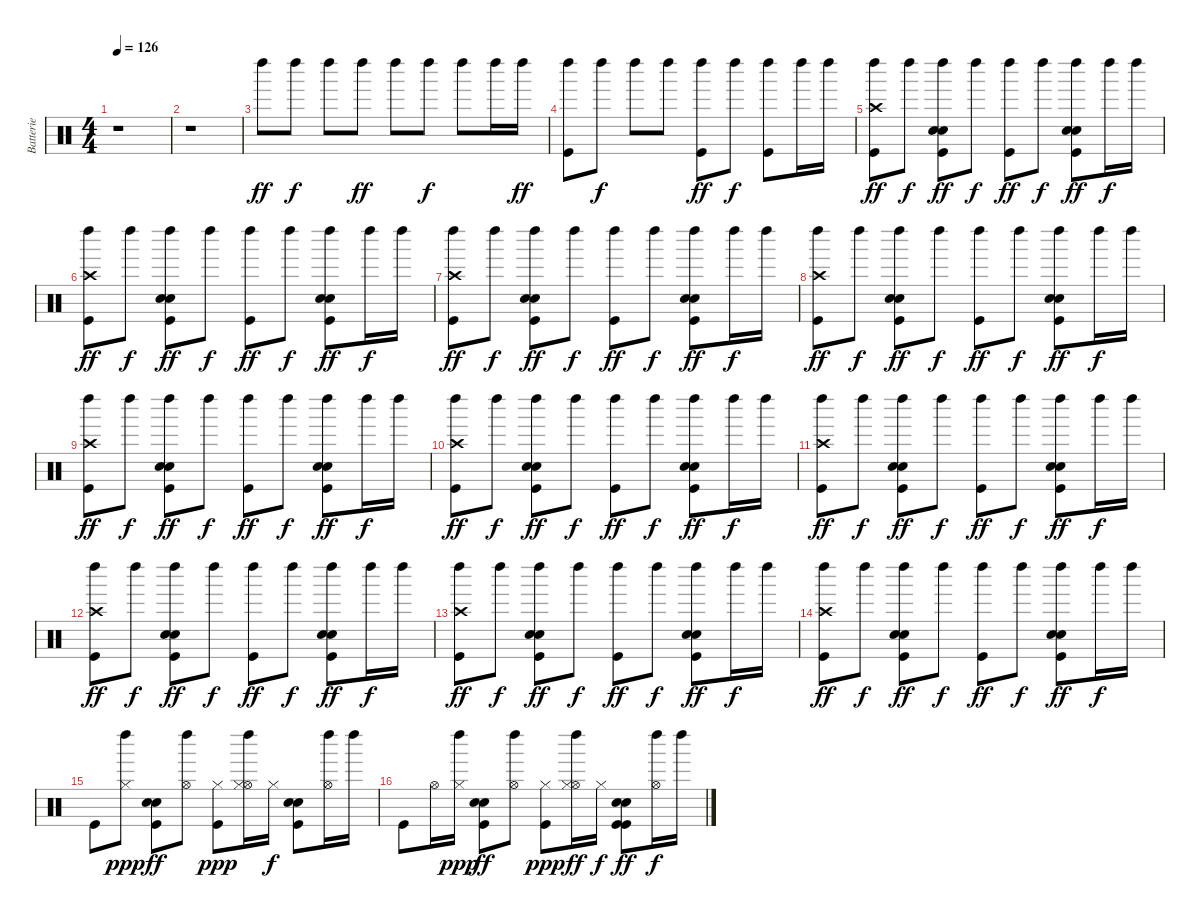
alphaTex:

\track ("Batterie" "Batterie") {instrument percussion}
\staff {score}
\articulation defaults
\ts (4 4)
\tempo 126
\clef neutral
\ks c
r.1{dy f} |
r.1 |
"Left Maraca (hit)".8{dy ff} "Left Maraca (hit)".8{dy f} "Left Maraca (hit)".8 "Left Maraca (hit)".8{dy ff} "Left Maraca (hit)".8 "Left Maraca (hit)".8{dy f} "Left Maraca (hit)".8 "Left Maraca (hit)".16 "Left Maraca (hit)".16{dy ff} |
("Left Maraca (hit)" "Kick (hit)").8 "Left Maraca (hit)".8{dy f} "Left Maraca (hit)".8 "Left Maraca (hit)".8 ("Left Maraca (hit)" "Kick (hit)").8{dy ff} "Left Maraca (hit)".8{dy f} ("Left Maraca (hit)" "Kick (hit)").8 "Left Maraca (hit)".16 "Left Maraca (hit)".16 |
("Left Maraca (hit)" "Crash high (hit)" "Kick (hit)").8{dy ff} "Left Maraca (hit)".8{dy f} ("Left Maraca (hit)" "Hand Clap (hit)" "Electric Snare (hit)" "Kick (hit)").8{dy ff} "Left Maraca (hit)".8{dy f} ("Left Maraca (hit)" "Kick (hit)").8{dy ff} "Left Maraca (hit)".8{dy f} ("Left Maraca (hit)" "Hand Clap (hit)" "Electric Snare (hit)" "Kick (hit)").8{dy ff} "Left Maraca (hit)".16{dy f} "Left Maraca (hit)".16 |
("Left Maraca (hit)" "Crash high (hit)" "Kick (hit)").8{dy ff} "Left Maraca (hit)".8{dy f} ("Left Maraca (hit)" "Hand Clap (hit)" "Electric Snare (hit)" "Kick (hit)").8{dy ff} "Left Maraca (hit)".8{dy f} ("Left Maraca (hit)" "Kick (hit)").8{dy ff} "Left Maraca (hit)".8{dy f} ("Left Maraca (hit)" "Hand Clap (hit)" "Electric Snare (hit)" "Kick (hit)").8{dy ff} "Left Maraca (hit)".16{dy f} "Left Maraca (hit)".16 |
("Left Maraca (hit)" "Crash high (hit)" "Kick (hit)").8{dy ff} "Left Maraca (hit)".8{dy f} ("Left Maraca (hit)" "Hand Clap (hit)" "Electric Snare (hit)" "Kick (hit)").8{dy ff} "Left Maraca (hit)".8{dy f} ("Left Maraca (hit)" "Kick (hit)").8{dy ff} "Left Maraca (hit)".8{dy f} ("Left Maraca (hit)" "Hand Clap (hit)" "Electric Snare (hit)" "Kick (hit)").8{dy ff} "Left Maraca (hit)".16{dy f} "Left Maraca (hit)".16 |
("Left Maraca (hit)" "Crash high (hit)" "Kick (hit)").8{dy ff} "Left Maraca (hit)".8{dy f} ("Left Maraca (hit)" "Hand Clap (hit)" "Electric Snare (hit)" "Kick (hit)").8{dy ff} "Left Maraca (hit)".8{dy f} ("Left Maraca (hit)" "Kick (hit)").8{dy ff} "Left Maraca (hit)".8{dy f} ("Left Maraca (hit)" "Hand Clap (hit)" "Electric Snare (hit)" "Kick (hit)").8{dy ff} "Left Maraca (hit)".16{dy f} "Left Maraca (hit)".16 |
("Left Maraca (hit)" "Crash high (hit)" "Kick (hit)").8{dy ff} "Left Maraca (hit)".8{dy f} ("Left Maraca (hit)" "Hand Clap (hit)" "Electric Snare (hit)" "Kick (hit)").8{dy ff} "Left Maraca (hit)".8{dy f} ("Left Maraca (hit)" "Kick (hit)").8{dy ff} "Left Maraca (hit)".8{dy f} ("Left Maraca (hit)" "Hand Clap (hit)" "Electric Snare (hit)" "Kick (hit)").8{dy ff} "Left Maraca (hit)".16{dy f} "Left Maraca (hit)".16 |
("Left Maraca (hit)" "Crash high (hit)" "Kick (hit)").8{dy ff} "Left Maraca (hit)".8{dy f} ("Left Maraca (hit)" "Hand Clap (hit)" "Electric Snare (hit)" "Kick (hit)").8{dy ff} "Left Maraca (hit)".8{dy f} ("Left Maraca (hit)" "Kick (hit)").8{dy ff} "Left Maraca (hit)".8{dy f} ("Left Maraca (hit)" "Hand Clap (hit)" "Electric Snare (hit)" "Kick (hit)").8{dy ff} "Left Maraca (hit)".16{dy f} "Left Maraca (hit)".16 |
("Left Maraca (hit)" "Crash high (hit)" "Kick (hit)").8{dy ff} "Left Maraca (hit)".8{dy f} ("Left Maraca (hit)" "Hand Clap (hit)" "Electric Snare (hit)" "Kick (hit)").8{dy ff} "Left Maraca (hit)".8{dy f} ("Left Maraca (hit)" "Kick (hit)").8{dy ff} "Left Maraca (hit)".8{dy f} ("Left Maraca (hit)" "Hand Clap (hit)" "Electric Snare (hit)" "Kick (hit)").8{dy ff} "Left Maraca (hit)".16{dy f} "Left Maraca (hit)".16 |
("Left Maraca (hit)" "Crash high (hit)" "Kick (hit)").8{dy ff} "Left Maraca (hit)".8{dy f} ("Left Maraca (hit)" "Hand Clap (hit)" "Electric Snare (hit)" "Kick (hit)").8{dy ff} "Left Maraca (hit)".8{dy f} ("Left Maraca (hit)" "Kick (hit)").8{dy ff} "Left Maraca (hit)".8{dy f} ("Left Maraca (hit)" "Hand Clap (hit)" "Electric Snare (hit)" "Kick (hit)").8{dy ff} "Left Maraca (hit)".16{dy f} "Left Maraca (hit)".16 |
("Left Maraca (hit)" "Crash high (hit)" "Kick (hit)").8{dy ff} "Left Maraca (hit)".8{dy f} ("Left Maraca (hit)" "Hand Clap (hit)" "Electric Snare (hit)" "Kick (hit)").8{dy ff} "Left Maraca (hit)".8{dy f} ("Left Maraca (hit)" "Kick (hit)").8{dy ff} "Left Maraca (hit)".8{dy f} ("Left Maraca (hit)" "Hand Clap (hit)" "Electric Snare (hit)" "Kick (hit)").8{dy ff} "Left Maraca (hit)".16{dy f} "Left Maraca (hit)".16 |
("Left Maraca (hit)" "Crash high (hit)" "Kick (hit)").8{dy ff} "Left Maraca (hit)".8{dy f} ("Left Maraca (hit)" "Hand Clap (hit)" "Electric Snare (hit)" "Kick (hit)").8{dy ff} "Left Maraca (hit)".8{dy f} ("Left Maraca (hit)" "Kick (hit)").8{dy ff} "Left Maraca (hit)".8{dy f} ("Left Maraca (hit)" "Hand Clap (hit)" "Electric Snare (hit)" "Kick (hit)").8{dy ff} "Left Maraca (hit)".16{dy f} "Left Maraca (hit)".16 |
"Kick (hit)".8 ("Left Maraca (hit)" "Hi-Hat (closed)").8{dy ppp} ("Hand Clap (hit)" "Electric Snare (hit)" "Kick (hit)").8{dy ff} ("Left Maraca (hit)" "Hi-Hat (open)").8 ("Hi-Hat (closed)" "Kick (hit)").8{dy ppp} ("Left Maraca (hit)" "Hi-Hat (open)" "Hi-Hat (closed)").16 "Hi-Hat (closed)".16{dy f} ("Hand Clap (hit)" "Electric Snare (hit)" "Kick (hit)").8 ("Left Maraca (hit)" "Hi-Hat (open)").16 "Left Maraca (hit)".16 |
"Kick (hit)".8 "Hi-Hat (open)".16 ("Left Maraca (hit)" "Hi-Hat (closed)").16{dy ppp} ("Hand Clap (hit)" "Electric Snare (hit)" "Kick (hit)").8{dy ff} ("Left Maraca (hit)" "Hi-Hat (open)").8 ("Hi-Hat (closed)" "Kick (hit)").8{dy ppp} ("Left Maraca (hit)" "Hi-Hat (open)" "Hi-Hat (closed)").16{dy ff} "Hi-Hat (closed)".16{dy f} ("Kick (hit)" "Hand Clap (hit)" "Electric Snare (hit)" "Kick (hit)").8{dy ff} ("Left Maraca (hit)" "Hi-Hat (open)").16{dy f} "Left Maraca (hit)".16
